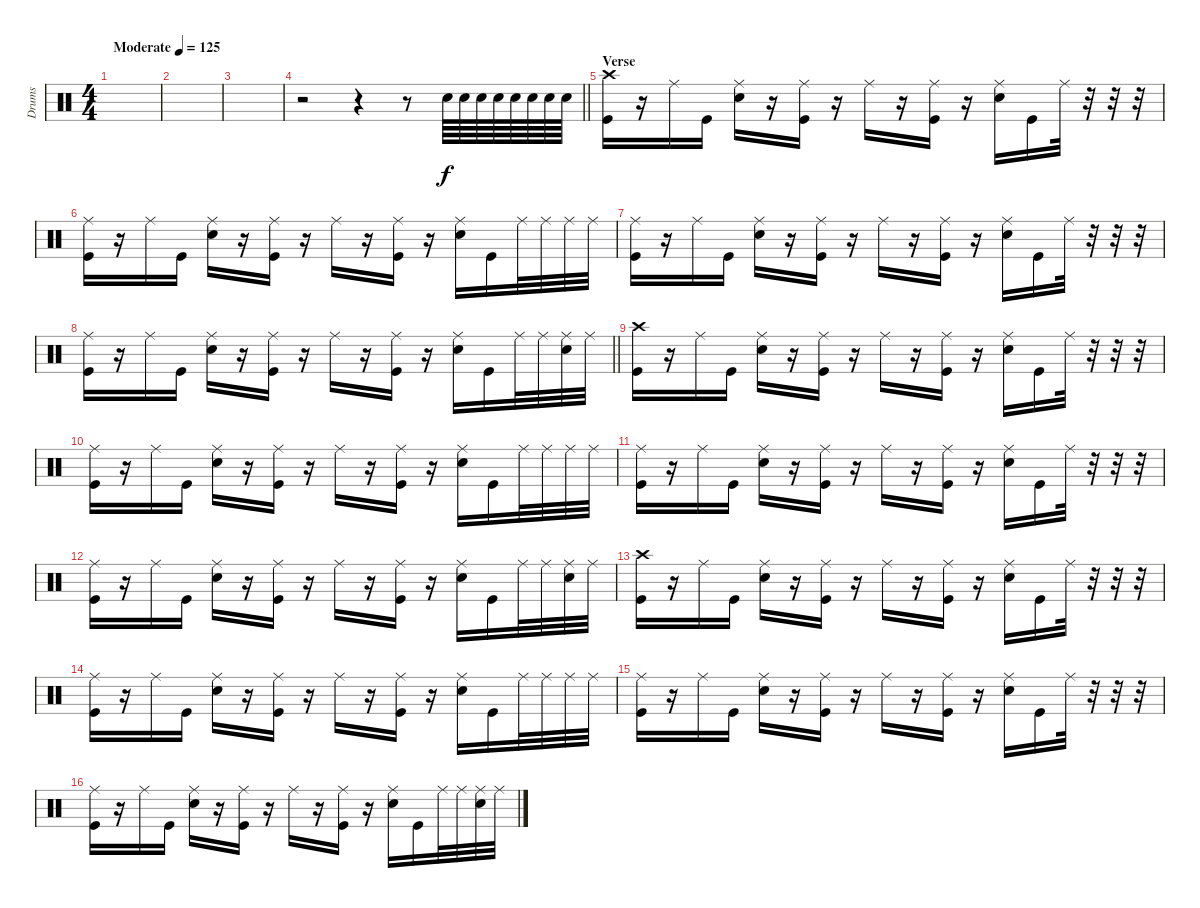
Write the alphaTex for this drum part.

\track ("Drums" "Drums") {instrument percussion}
\staff {score}
\articulation defaults
\ts (4 4)
\tempo (125 "Moderate")
\clef neutral
\ks c
|
|
|
\barLineRight lightlight
r.2 r.4 r.8 "Snare (hit) 2".64 "Snare (hit) 2".64 "Snare (hit) 2".64 "Snare (hit) 2".64 "Snare (hit) 2".64 "Snare (hit) 2".64 "Snare (hit) 2".64 "Snare (hit) 2".64 |
\section ("" "Verse")
("Kick (hit)" "Crash high (hit)").16 r.16 "Ride (middle)".16 "Kick (hit)".16 ("Snare (hit) 2" "Ride (middle)").16 r.16 ("Kick (hit)" "Ride (middle)").16 r.16 "Ride (middle)".16 r.16 ("Kick (hit)" "Ride (middle)").16 r.16 ("Snare (hit) 2" "Ride (middle)").16 "Kick (hit)".16 "Ride (middle)".32 r.32 r.32 r.32 |
("Kick (hit)" "Ride (middle)").16 r.16 "Ride (middle)".16 "Kick (hit)".16 ("Snare (hit) 2" "Ride (middle)").16 r.16 ("Kick (hit)" "Ride (middle)").16 r.16 "Ride (middle)".16 r.16 ("Kick (hit)" "Ride (middle)").16 r.16 ("Snare (hit) 2" "Ride (middle)").16 "Kick (hit)".16 "Ride (middle)".32 "Ride (middle)".32 "Ride (middle)".32 "Ride (middle)".32 |
("Kick (hit)" "Ride (middle)").16 r.16 "Ride (middle)".16 "Kick (hit)".16 ("Snare (hit) 2" "Ride (middle)").16 r.16 ("Kick (hit)" "Ride (middle)").16 r.16 "Ride (middle)".16 r.16 ("Kick (hit)" "Ride (middle)").16 r.16 ("Snare (hit) 2" "Ride (middle)").16 "Kick (hit)".16 "Ride (middle)".32 r.32 r.32 r.32 |
\barLineRight lightlight
("Kick (hit)" "Ride (middle)").16 r.16 "Ride (middle)".16 "Kick (hit)".16 ("Snare (hit) 2" "Ride (middle)").16 r.16 ("Kick (hit)" "Ride (middle)").16 r.16 "Ride (middle)".16 r.16 ("Kick (hit)" "Ride (middle)").16 r.16 ("Snare (hit) 2" "Ride (middle)").16 "Kick (hit)".16 "Ride (middle)".32 "Ride (middle)".32 ("Ride (middle)" "Snare (hit) 2").32 "Ride (middle)".32 |
("Kick (hit)" "Crash high (hit)").16 r.16 "Ride (middle)".16 "Kick (hit)".16 ("Snare (hit) 2" "Ride (middle)").16 r.16 ("Kick (hit)" "Ride (middle)").16 r.16 "Ride (middle)".16 r.16 ("Kick (hit)" "Ride (middle)").16 r.16 ("Snare (hit) 2" "Ride (middle)").16 "Kick (hit)".16 "Ride (middle)".32 r.32 r.32 r.32 |
("Kick (hit)" "Ride (middle)").16 r.16 "Ride (middle)".16 "Kick (hit)".16 ("Snare (hit) 2" "Ride (middle)").16 r.16 ("Kick (hit)" "Ride (middle)").16 r.16 "Ride (middle)".16 r.16 ("Kick (hit)" "Ride (middle)").16 r.16 ("Snare (hit) 2" "Ride (middle)").16 "Kick (hit)".16 "Ride (middle)".32 "Ride (middle)".32 "Ride (middle)".32 "Ride (middle)".32 |
("Kick (hit)" "Ride (middle)").16 r.16 "Ride (middle)".16 "Kick (hit)".16 ("Snare (hit) 2" "Ride (middle)").16 r.16 ("Kick (hit)" "Ride (middle)").16 r.16 "Ride (middle)".16 r.16 ("Kick (hit)" "Ride (middle)").16 r.16 ("Snare (hit) 2" "Ride (middle)").16 "Kick (hit)".16 "Ride (middle)".32 r.32 r.32 r.32 |
("Kick (hit)" "Ride (middle)").16 r.16 "Ride (middle)".16 "Kick (hit)".16 ("Snare (hit) 2" "Ride (middle)").16 r.16 ("Kick (hit)" "Ride (middle)").16 r.16 "Ride (middle)".16 r.16 ("Kick (hit)" "Ride (middle)").16 r.16 ("Snare (hit) 2" "Ride (middle)").16 "Kick (hit)".16 "Ride (middle)".32 "Ride (middle)".32 ("Ride (middle)" "Snare (hit) 2").32 "Ride (middle)".32 |
("Kick (hit)" "Crash high (hit)").16 r.16 "Ride (middle)".16 "Kick (hit)".16 ("Snare (hit) 2" "Ride (middle)").16 r.16 ("Kick (hit)" "Ride (middle)").16 r.16 "Ride (middle)".16 r.16 ("Kick (hit)" "Ride (middle)").16 r.16 ("Snare (hit) 2" "Ride (middle)").16 "Kick (hit)".16 "Ride (middle)".32 r.32 r.32 r.32 |
("Kick (hit)" "Ride (middle)").16 r.16 "Ride (middle)".16 "Kick (hit)".16 ("Snare (hit) 2" "Ride (middle)").16 r.16 ("Kick (hit)" "Ride (middle)").16 r.16 "Ride (middle)".16 r.16 ("Kick (hit)" "Ride (middle)").16 r.16 ("Snare (hit) 2" "Ride (middle)").16 "Kick (hit)".16 "Ride (middle)".32 "Ride (middle)".32 "Ride (middle)".32 "Ride (middle)".32 |
("Kick (hit)" "Ride (middle)").16 r.16 "Ride (middle)".16 "Kick (hit)".16 ("Snare (hit) 2" "Ride (middle)").16 r.16 ("Kick (hit)" "Ride (middle)").16 r.16 "Ride (middle)".16 r.16 ("Kick (hit)" "Ride (middle)").16 r.16 ("Snare (hit) 2" "Ride (middle)").16 "Kick (hit)".16 "Ride (middle)".32 r.32 r.32 r.32 |
("Kick (hit)" "Ride (middle)").16 r.16 "Ride (middle)".16 "Kick (hit)".16 ("Snare (hit) 2" "Ride (middle)").16 r.16 ("Kick (hit)" "Ride (middle)").16 r.16 "Ride (middle)".16 r.16 ("Kick (hit)" "Ride (middle)").16 r.16 ("Snare (hit) 2" "Ride (middle)").16 "Kick (hit)".16 "Ride (middle)".32 "Ride (middle)".32 ("Ride (middle)" "Snare (hit) 2").32 "Ride (middle)".32
